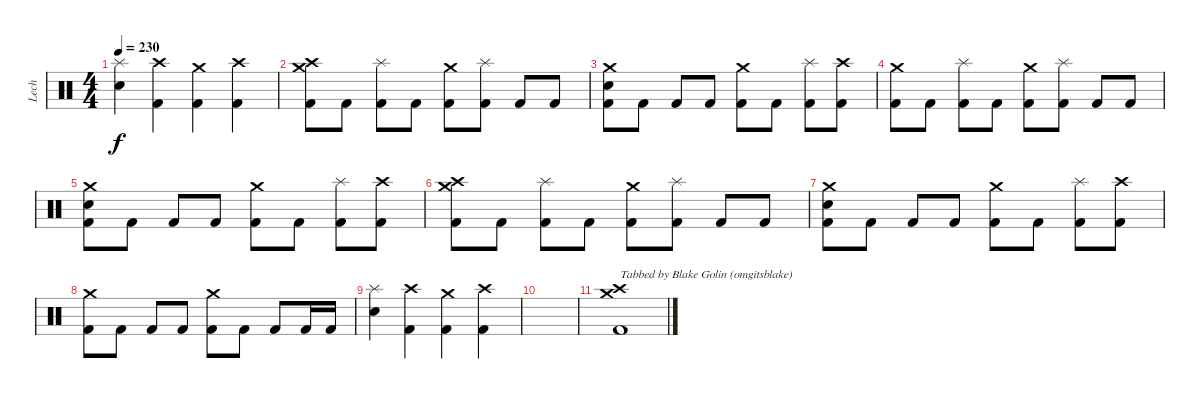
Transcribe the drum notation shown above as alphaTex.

\track ("Lech" "Lech") {instrument percussion}
\staff {score}
\articulation defaults
\ts (4 4)
\tempo 230
\clef neutral
\ks c
("Splash (hit)" "Electric Snare (hit)").4{dy f} ("Crash high (hit)" "Kick (hit) 2").4 ("Crash medium (hit)" "Kick (hit) 2").4 ("Crash high (hit)" "Kick (hit) 2").4 |
("Crash medium (hit)" "Crash high (hit)" "Kick (hit) 2").8 "Kick (hit) 2".8 ("Splash (hit)" "Kick (hit) 2").8 "Kick (hit) 2".8 ("Crash medium (hit)" "Kick (hit) 2").8 ("Splash (hit)" "Kick (hit) 2").8 "Kick (hit) 2".8 "Kick (hit) 2".8 |
("Crash medium (hit)" "Electric Snare (hit)" "Kick (hit) 2").8 "Kick (hit) 2".8 "Kick (hit) 2".8 "Kick (hit) 2".8 ("Crash medium (hit)" "Kick (hit) 2").8 "Kick (hit) 2".8 ("Splash (hit)" "Kick (hit) 2").8 ("Crash high (hit)" "Kick (hit) 2").8 |
("Crash medium (hit)" "Kick (hit) 2").8 "Kick (hit) 2".8 ("Splash (hit)" "Kick (hit) 2").8 "Kick (hit) 2".8 ("Crash medium (hit)" "Kick (hit) 2").8 ("Splash (hit)" "Kick (hit) 2").8 "Kick (hit) 2".8 "Kick (hit) 2".8 |
("Crash medium (hit)" "Electric Snare (hit)" "Kick (hit) 2").8 "Kick (hit) 2".8 "Kick (hit) 2".8 "Kick (hit) 2".8 ("Crash medium (hit)" "Kick (hit) 2").8 "Kick (hit) 2".8 ("Splash (hit)" "Kick (hit) 2").8 ("Crash high (hit)" "Kick (hit) 2").8 |
("Crash medium (hit)" "Crash high (hit)" "Kick (hit) 2").8 "Kick (hit) 2".8 ("Splash (hit)" "Kick (hit) 2").8 "Kick (hit) 2".8 ("Crash medium (hit)" "Kick (hit) 2").8 ("Splash (hit)" "Kick (hit) 2").8 "Kick (hit) 2".8 "Kick (hit) 2".8 |
("Crash medium (hit)" "Electric Snare (hit)" "Kick (hit) 2").8 "Kick (hit) 2".8 "Kick (hit) 2".8 "Kick (hit) 2".8 ("Crash medium (hit)" "Kick (hit) 2").8 "Kick (hit) 2".8 ("Splash (hit)" "Kick (hit) 2").8 ("Crash high (hit)" "Kick (hit) 2").8 |
("Crash medium (hit)" "Kick (hit) 2").8 "Kick (hit) 2".8 "Kick (hit) 2".8 "Kick (hit) 2".8 ("Crash medium (hit)" "Kick (hit) 2").8 "Kick (hit) 2".8 "Kick (hit) 2".8 "Kick (hit) 2".16 "Kick (hit) 2".16 |
("Splash (hit)" "Electric Snare (hit)").4 ("Crash high (hit)" "Kick (hit) 2").4 ("Crash medium (hit)" "Kick (hit) 2").4 ("Crash high (hit)" "Kick (hit) 2").4 |
|
("Crash high (hit)" "Crash medium (hit)" "Kick (hit) 2").1{txt "Tabbed by Blake Golin (omgitsblake)"}
